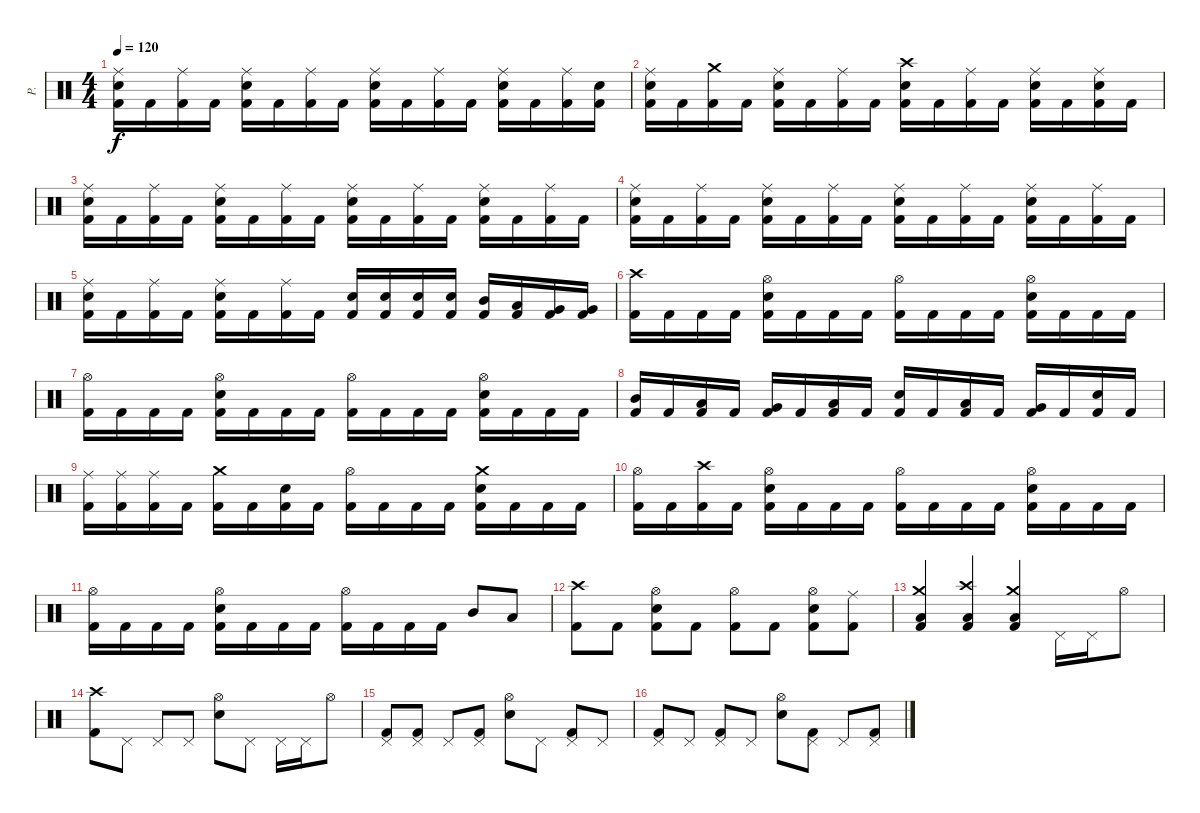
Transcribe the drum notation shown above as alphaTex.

\track ("P." "P.") {instrument percussion}
\staff {score}
\articulation defaults
\ts (4 4)
\tempo 120
\clef neutral
\ks c
("Ride (middle)" "Snare (hit) 2" "Kick (hit) 2").16{dy f} "Kick (hit) 2".16 ("Ride (middle)" "Kick (hit) 2").16 "Kick (hit) 2".16 ("Ride (middle)" "Snare (hit) 2" "Kick (hit) 2").16 "Kick (hit) 2".16 ("Ride (middle)" "Kick (hit) 2").16 "Kick (hit) 2".16 ("Ride (middle)" "Snare (hit) 2" "Kick (hit) 2").16 "Kick (hit) 2".16 ("Ride (middle)" "Kick (hit) 2").16 "Kick (hit) 2".16 ("Ride (middle)" "Snare (hit) 2" "Kick (hit) 2").16 "Kick (hit) 2".16 ("Ride (middle)" "Kick (hit) 2").16 ("Snare (hit) 2" "Kick (hit) 2").16 |
("Ride (middle)" "Snare (hit) 2" "Kick (hit) 2").16 "Kick (hit) 2".16 ("Crash medium (hit)" "Kick (hit) 2").16 "Kick (hit) 2".16 ("Ride (middle)" "Snare (hit) 2" "Kick (hit) 2").16 "Kick (hit) 2".16 ("Ride (middle)" "Kick (hit) 2").16 "Kick (hit) 2".16 ("Crash high (hit)" "Snare (hit) 2" "Kick (hit) 2").16 "Kick (hit) 2".16 ("Ride (middle)" "Kick (hit) 2").16 "Kick (hit) 2".16 ("Ride (middle)" "Snare (hit) 2" "Kick (hit) 2").16 "Kick (hit) 2".16 ("Ride (middle)" "Snare (hit) 2" "Kick (hit) 2").16 "Kick (hit) 2".16 |
("Ride (middle)" "Snare (hit) 2" "Kick (hit) 2").16 "Kick (hit) 2".16 ("Ride (middle)" "Kick (hit) 2").16 "Kick (hit) 2".16 ("Ride (middle)" "Snare (hit) 2" "Kick (hit) 2").16 "Kick (hit) 2".16 ("Ride (middle)" "Kick (hit) 2").16 "Kick (hit) 2".16 ("Ride (middle)" "Snare (hit) 2" "Kick (hit) 2").16 "Kick (hit) 2".16 ("Ride (middle)" "Kick (hit) 2").16 "Kick (hit) 2".16 ("Ride (middle)" "Snare (hit) 2" "Kick (hit) 2").16 "Kick (hit) 2".16 ("Ride (middle)" "Kick (hit) 2").16 "Kick (hit) 2".16 |
("Ride (middle)" "Snare (hit) 2" "Kick (hit) 2").16 "Kick (hit) 2".16 ("Ride (middle)" "Kick (hit) 2").16 "Kick (hit) 2".16 ("Ride (middle)" "Snare (hit) 2" "Kick (hit) 2").16 "Kick (hit) 2".16 ("Ride (middle)" "Kick (hit) 2").16 "Kick (hit) 2".16 ("Ride (middle)" "Snare (hit) 2" "Kick (hit) 2").16 "Kick (hit) 2".16 ("Ride (middle)" "Kick (hit) 2").16 "Kick (hit) 2".16 ("Ride (middle)" "Snare (hit) 2" "Kick (hit) 2").16 "Kick (hit) 2".16 ("Ride (middle)" "Kick (hit) 2").16 "Kick (hit) 2".16 |
("Ride (middle)" "Snare (hit) 2" "Kick (hit) 2").16 "Kick (hit) 2".16 ("Ride (middle)" "Kick (hit) 2").16 "Kick (hit) 2".16 ("Ride (middle)" "Snare (hit) 2" "Kick (hit) 2").16 "Kick (hit) 2".16 ("Ride (middle)" "Kick (hit) 2").16 "Kick (hit) 2".16 ("Snare (hit) 2" "Kick (hit) 2").16 ("Snare (hit) 2" "Kick (hit) 2").16 ("Snare (hit) 2" "Kick (hit) 2").16 ("Snare (hit) 2" "Kick (hit) 2").16 ("Mid Tom (hit)" "Kick (hit) 2").16 ("Low Tom (hit)" "Kick (hit) 2").16 ("Very Low Tom (hit)" "Kick (hit) 2").16 ("Very Low Tom (hit)" "Kick (hit) 2").16 |
("Crash high (hit)" "Kick (hit) 2").16 "Kick (hit) 2".16 "Kick (hit) 2".16 "Kick (hit) 2".16 ("Hi-Hat (open)" "Snare (hit) 2" "Kick (hit) 2").16 "Kick (hit) 2".16 "Kick (hit) 2".16 "Kick (hit) 2".16 ("Hi-Hat (open)" "Kick (hit) 2").16 "Kick (hit) 2".16 "Kick (hit) 2".16 "Kick (hit) 2".16 ("Hi-Hat (open)" "Snare (hit) 2" "Kick (hit) 2").16 "Kick (hit) 2".16 "Kick (hit) 2".16 "Kick (hit) 2".16 |
("Hi-Hat (open)" "Kick (hit) 2").16 "Kick (hit) 2".16 "Kick (hit) 2".16 "Kick (hit) 2".16 ("Hi-Hat (open)" "Snare (hit) 2" "Kick (hit) 2").16 "Kick (hit) 2".16 "Kick (hit) 2".16 "Kick (hit) 2".16 ("Hi-Hat (open)" "Kick (hit) 2").16 "Kick (hit) 2".16 "Kick (hit) 2".16 "Kick (hit) 2".16 ("Hi-Hat (open)" "Snare (hit) 2" "Kick (hit) 2").16 "Kick (hit) 2".16 "Kick (hit) 2".16 "Kick (hit) 2".16 |
("Mid Tom (hit)" "Kick (hit) 2").16 "Kick (hit) 2".16 ("Low Tom (hit)" "Kick (hit) 2").16 "Kick (hit) 2".16 ("Very Low Tom (hit)" "Kick (hit) 2").16 "Kick (hit) 2".16 ("Low Floor Tom (hit)" "Kick (hit) 2").16 "Kick (hit) 2".16 ("Snare (hit) 2" "Kick (hit) 2").16 "Kick (hit) 2".16 ("Low Tom (hit)" "Kick (hit) 2").16 "Kick (hit) 2".16 ("Very Low Tom (hit)" "Kick (hit) 2").16 "Kick (hit) 2".16 ("Snare (hit) 2" "Kick (hit) 2").16 "Kick (hit) 2".16 |
("Ride (middle)" "Kick (hit) 2").16 ("Ride (middle)" "Kick (hit) 2").16 ("Ride (middle)" "Kick (hit) 2").16 "Kick (hit) 2".16 ("Crash medium (hit)" "Kick (hit) 2").16 "Kick (hit) 2".16 ("Snare (hit) 2" "Kick (hit) 2").16 "Kick (hit) 2".16 ("Hi-Hat (open)" "Kick (hit) 2").16 "Kick (hit) 2".16 "Kick (hit) 2".16 "Kick (hit) 2".16 ("Crash medium (hit)" "Snare (hit) 2" "Kick (hit) 2").16 "Kick (hit) 2".16 "Kick (hit) 2".16 "Kick (hit) 2".16 |
("Hi-Hat (open)" "Kick (hit) 2").16 "Kick (hit) 2".16 ("Crash high (hit)" "Kick (hit) 2").16 "Kick (hit) 2".16 ("Hi-Hat (open)" "Snare (hit) 2" "Kick (hit) 2").16 "Kick (hit) 2".16 "Kick (hit) 2".16 "Kick (hit) 2".16 ("Hi-Hat (open)" "Kick (hit) 2").16 "Kick (hit) 2".16 "Kick (hit) 2".16 "Kick (hit) 2".16 ("Hi-Hat (open)" "Snare (hit) 2" "Kick (hit) 2").16 "Kick (hit) 2".16 "Kick (hit) 2".16 "Kick (hit) 2".16 |
("Hi-Hat (open)" "Kick (hit) 2").16 "Kick (hit) 2".16 "Kick (hit) 2".16 "Kick (hit) 2".16 ("Hi-Hat (open)" "Snare (hit) 2" "Kick (hit) 2").16 "Kick (hit) 2".16 "Kick (hit) 2".16 "Kick (hit) 2".16 ("Hi-Hat (open)" "Kick (hit) 2").16 "Kick (hit) 2".16 "Kick (hit) 2".16 "Kick (hit) 2".16 "Mid Tom (hit)".8 "Low Tom (hit)".8 |
("Crash high (hit)" "Kick (hit) 2").8 "Kick (hit) 2".8 ("Hi-Hat (open)" "Snare (hit) 2" "Kick (hit) 2").8 "Kick (hit) 2".8 ("Hi-Hat (open)" "Kick (hit) 2").8 "Kick (hit) 2".8 ("Hi-Hat (open)" "Snare (hit) 2" "Kick (hit) 2").8 ("Ride (middle)" "Kick (hit) 2").8 |
("Crash medium (hit)" "Low Floor Tom (hit)" "Kick (hit) 2").4 ("Crash high (hit)" "Low Floor Tom (hit)" "Kick (hit) 2").4 ("Crash medium (hit)" "Low Floor Tom (hit)" "Kick (hit) 2").4 "Pedal Hi-Hat (hit)".16 "Pedal Hi-Hat (hit)".16 "Hi-Hat (open)".8 |
("Crash high (hit)" "Kick (hit) 2").8 "Pedal Hi-Hat (hit)".8 "Pedal Hi-Hat (hit)".8 "Pedal Hi-Hat (hit)".8 ("Hi-Hat (open)" "Snare (hit) 2").8 "Pedal Hi-Hat (hit)".8 "Pedal Hi-Hat (hit)".16 "Pedal Hi-Hat (hit)".16 "Hi-Hat (open)".8 |
("Pedal Hi-Hat (hit)" "Kick (hit) 2").8 ("Pedal Hi-Hat (hit)" "Kick (hit) 2").8 "Pedal Hi-Hat (hit)".8 ("Pedal Hi-Hat (hit)" "Kick (hit) 2").8 ("Hi-Hat (open)" "Snare (hit) 2").8 "Pedal Hi-Hat (hit)".8 ("Pedal Hi-Hat (hit)" "Kick (hit) 2").8 "Pedal Hi-Hat (hit)".8 |
("Pedal Hi-Hat (hit)" "Kick (hit) 2").8 "Pedal Hi-Hat (hit)".8 ("Pedal Hi-Hat (hit)" "Kick (hit) 2").8 "Pedal Hi-Hat (hit)".8 ("Hi-Hat (open)" "Snare (hit) 2").8 ("Pedal Hi-Hat (hit)" "Kick (hit) 2").8 "Pedal Hi-Hat (hit)".8 ("Pedal Hi-Hat (hit)" "Kick (hit) 2").8
